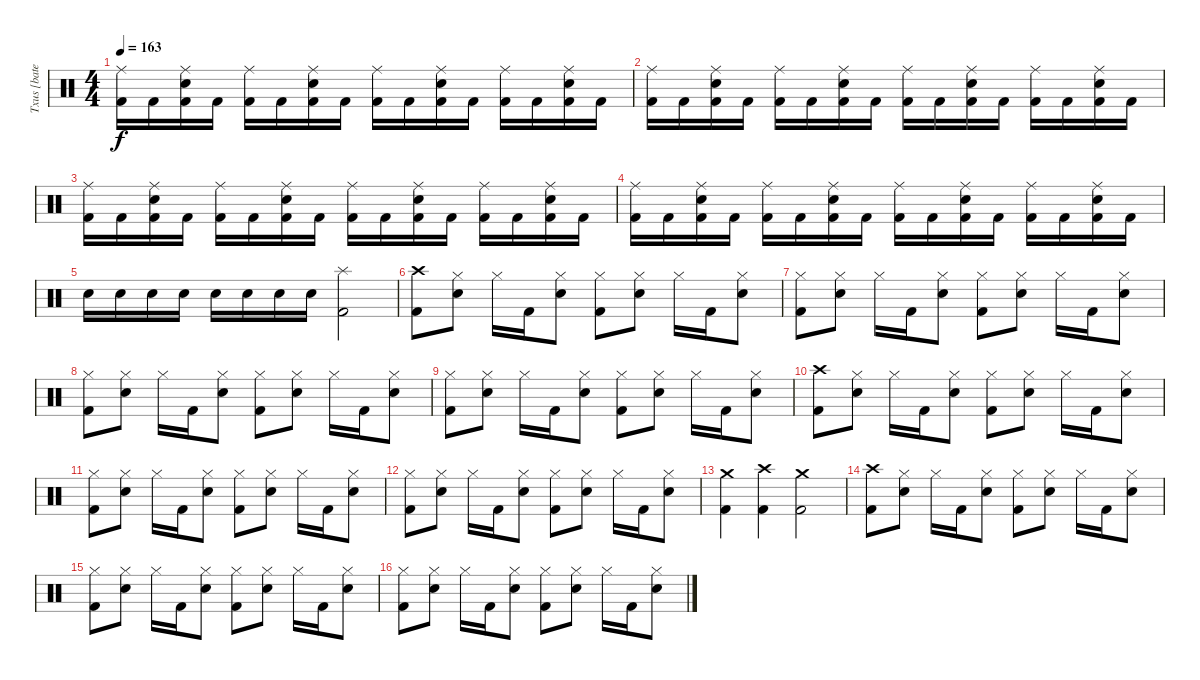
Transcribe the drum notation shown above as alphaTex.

\track ("Txus [bateria]" "Txus [bate") {instrument percussion}
\staff {score}
\articulation defaults
\ts (4 4)
\tempo 163
\clef neutral
\ks c
("Ride (middle)" "Kick (hit) 2").16{dy f} "Kick (hit) 2".16 ("Ride (middle)" "Snare (hit) 2" "Kick (hit) 2").16 "Kick (hit) 2".16 ("Ride (middle)" "Kick (hit) 2").16 "Kick (hit) 2".16 ("Ride (middle)" "Snare (hit) 2" "Kick (hit) 2").16 "Kick (hit) 2".16 ("Ride (middle)" "Kick (hit) 2").16 "Kick (hit) 2".16 ("Ride (middle)" "Snare (hit) 2" "Kick (hit) 2").16 "Kick (hit) 2".16 ("Ride (middle)" "Kick (hit) 2").16 "Kick (hit) 2".16 ("Ride (middle)" "Snare (hit) 2" "Kick (hit) 2").16 "Kick (hit) 2".16 |
("Ride (middle)" "Kick (hit) 2").16 "Kick (hit) 2".16 ("Ride (middle)" "Snare (hit) 2" "Kick (hit) 2").16 "Kick (hit) 2".16 ("Ride (middle)" "Kick (hit) 2").16 "Kick (hit) 2".16 ("Ride (middle)" "Snare (hit) 2" "Kick (hit) 2").16 "Kick (hit) 2".16 ("Ride (middle)" "Kick (hit) 2").16 "Kick (hit) 2".16 ("Ride (middle)" "Snare (hit) 2" "Kick (hit) 2").16 "Kick (hit) 2".16 ("Ride (middle)" "Kick (hit) 2").16 "Kick (hit) 2".16 ("Ride (middle)" "Snare (hit) 2" "Kick (hit) 2").16 "Kick (hit) 2".16 |
("Ride (middle)" "Kick (hit) 2").16 "Kick (hit) 2".16 ("Ride (middle)" "Snare (hit) 2" "Kick (hit) 2").16 "Kick (hit) 2".16 ("Ride (middle)" "Kick (hit) 2").16 "Kick (hit) 2".16 ("Ride (middle)" "Snare (hit) 2" "Kick (hit) 2").16 "Kick (hit) 2".16 ("Ride (middle)" "Kick (hit) 2").16 "Kick (hit) 2".16 ("Ride (middle)" "Snare (hit) 2" "Kick (hit) 2").16 "Kick (hit) 2".16 ("Ride (middle)" "Kick (hit) 2").16 "Kick (hit) 2".16 ("Ride (middle)" "Snare (hit) 2" "Kick (hit) 2").16 "Kick (hit) 2".16 |
("Ride (middle)" "Kick (hit) 2").16 "Kick (hit) 2".16 ("Ride (middle)" "Snare (hit) 2" "Kick (hit) 2").16 "Kick (hit) 2".16 ("Ride (middle)" "Kick (hit) 2").16 "Kick (hit) 2".16 ("Ride (middle)" "Snare (hit) 2" "Kick (hit) 2").16 "Kick (hit) 2".16 ("Ride (middle)" "Kick (hit) 2").16 "Kick (hit) 2".16 ("Ride (middle)" "Snare (hit) 2" "Kick (hit) 2").16 "Kick (hit) 2".16 ("Ride (middle)" "Kick (hit) 2").16 "Kick (hit) 2".16 ("Ride (middle)" "Snare (hit) 2" "Kick (hit) 2").16 "Kick (hit) 2".16 |
"Snare (hit) 2".16 "Snare (hit) 2".16 "Snare (hit) 2".16 "Snare (hit) 2".16 "Snare (hit) 2".16 "Snare (hit) 2".16 "Snare (hit) 2".16 "Snare (hit) 2".16 ("Splash (hit)" "Kick (hit) 2").2 |
("Crash high (hit)" "Kick (hit) 2").8 ("Hi-Hat (closed)" "Snare (hit) 2").8 "Hi-Hat (closed)".16 "Kick (hit) 2".16 ("Hi-Hat (closed)" "Snare (hit) 2").8 ("Hi-Hat (closed)" "Kick (hit) 2").8 ("Hi-Hat (closed)" "Snare (hit) 2").8 "Hi-Hat (closed)".16 "Kick (hit) 2".16 ("Hi-Hat (closed)" "Snare (hit) 2").8 |
("Hi-Hat (closed)" "Kick (hit) 2").8 ("Hi-Hat (closed)" "Snare (hit) 2").8 "Hi-Hat (closed)".16 "Kick (hit) 2".16 ("Hi-Hat (closed)" "Snare (hit) 2").8 ("Hi-Hat (closed)" "Kick (hit) 2").8 ("Hi-Hat (closed)" "Snare (hit) 2").8 "Hi-Hat (closed)".16 "Kick (hit) 2".16 ("Hi-Hat (closed)" "Snare (hit) 2").8 |
("Hi-Hat (closed)" "Kick (hit) 2").8 ("Hi-Hat (closed)" "Snare (hit) 2").8 "Hi-Hat (closed)".16 "Kick (hit) 2".16 ("Hi-Hat (closed)" "Snare (hit) 2").8 ("Hi-Hat (closed)" "Kick (hit) 2").8 ("Hi-Hat (closed)" "Snare (hit) 2").8 "Hi-Hat (closed)".16 "Kick (hit) 2".16 ("Hi-Hat (closed)" "Snare (hit) 2").8 |
("Hi-Hat (closed)" "Kick (hit) 2").8 ("Hi-Hat (closed)" "Snare (hit) 2").8 "Hi-Hat (closed)".16 "Kick (hit) 2".16 ("Hi-Hat (closed)" "Snare (hit) 2").8 ("Hi-Hat (closed)" "Kick (hit) 2").8 ("Hi-Hat (closed)" "Snare (hit) 2").8 "Hi-Hat (closed)".16 "Kick (hit) 2".16 ("Hi-Hat (closed)" "Snare (hit) 2").8 |
("Crash high (hit)" "Kick (hit) 2").8 ("Hi-Hat (closed)" "Snare (hit) 2").8 "Hi-Hat (closed)".16 "Kick (hit) 2".16 ("Hi-Hat (closed)" "Snare (hit) 2").8 ("Hi-Hat (closed)" "Kick (hit) 2").8 ("Hi-Hat (closed)" "Snare (hit) 2").8 "Hi-Hat (closed)".16 "Kick (hit) 2".16 ("Hi-Hat (closed)" "Snare (hit) 2").8 |
("Hi-Hat (closed)" "Kick (hit) 2").8 ("Hi-Hat (closed)" "Snare (hit) 2").8 "Hi-Hat (closed)".16 "Kick (hit) 2".16 ("Hi-Hat (closed)" "Snare (hit) 2").8 ("Hi-Hat (closed)" "Kick (hit) 2").8 ("Hi-Hat (closed)" "Snare (hit) 2").8 "Hi-Hat (closed)".16 "Kick (hit) 2".16 ("Hi-Hat (closed)" "Snare (hit) 2").8 |
("Hi-Hat (closed)" "Kick (hit) 2").8 ("Hi-Hat (closed)" "Snare (hit) 2").8 "Hi-Hat (closed)".16 "Kick (hit) 2".16 ("Hi-Hat (closed)" "Snare (hit) 2").8 ("Hi-Hat (closed)" "Kick (hit) 2").8 ("Hi-Hat (closed)" "Snare (hit) 2").8 "Hi-Hat (closed)".16 "Kick (hit) 2".16 ("Hi-Hat (closed)" "Snare (hit) 2").8 |
("Crash medium (hit)" "Kick (hit) 2").4 ("Crash high (hit)" "Kick (hit) 2").4 ("Crash medium (hit)" "Kick (hit) 2").2 |
("Crash high (hit)" "Kick (hit) 2").8 ("Hi-Hat (closed)" "Snare (hit) 2").8 "Hi-Hat (closed)".16 "Kick (hit) 2".16 ("Hi-Hat (closed)" "Snare (hit) 2").8 ("Hi-Hat (closed)" "Kick (hit) 2").8 ("Hi-Hat (closed)" "Snare (hit) 2").8 "Hi-Hat (closed)".16 "Kick (hit) 2".16 ("Hi-Hat (closed)" "Snare (hit) 2").8 |
("Hi-Hat (closed)" "Kick (hit) 2").8 ("Hi-Hat (closed)" "Snare (hit) 2").8 "Hi-Hat (closed)".16 "Kick (hit) 2".16 ("Hi-Hat (closed)" "Snare (hit) 2").8 ("Hi-Hat (closed)" "Kick (hit) 2").8 ("Hi-Hat (closed)" "Snare (hit) 2").8 "Hi-Hat (closed)".16 "Kick (hit) 2".16 ("Hi-Hat (closed)" "Snare (hit) 2").8 |
("Hi-Hat (closed)" "Kick (hit) 2").8 ("Hi-Hat (closed)" "Snare (hit) 2").8 "Hi-Hat (closed)".16 "Kick (hit) 2".16 ("Hi-Hat (closed)" "Snare (hit) 2").8 ("Hi-Hat (closed)" "Kick (hit) 2").8 ("Hi-Hat (closed)" "Snare (hit) 2").8 "Hi-Hat (closed)".16 "Kick (hit) 2".16 ("Hi-Hat (closed)" "Snare (hit) 2").8
